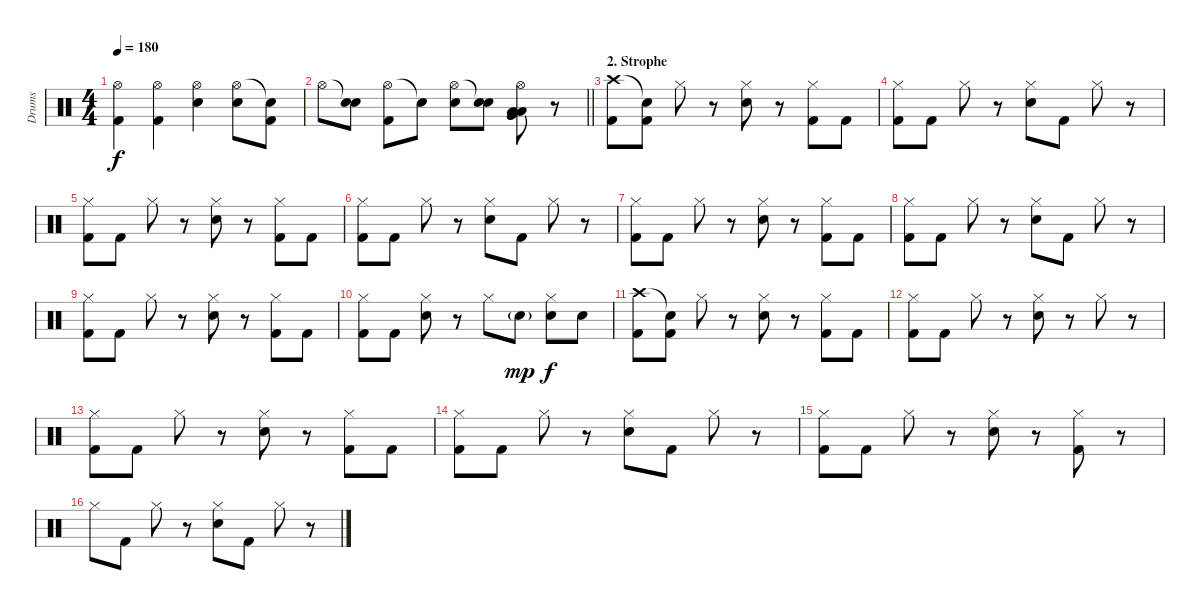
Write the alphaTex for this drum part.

\track ("Drums" "Drums") {instrument percussion}
\staff {score}
\articulation defaults
\ts (4 4)
\tempo 180
\clef neutral
\ks c
("Hi-Hat (open)" "Kick (hit) 2").4{dy f} ("Hi-Hat (open)" "Kick (hit) 2").4 ("Hi-Hat (open)" "Snare (hit) 2").4 ("Hi-Hat (open)" "Snare (hit) 2").8 ("Snare (hit)"{t} "Kick (hit) 2").8 |
\barLineRight lightlight "Hi-Hat (open)".8
("Snare (hit)"{t} "Snare (hit) 2").8 ("Hi-Hat (open)" "Kick (hit) 2").8 "Snare (hit)"{t}.8 ("Hi-Hat (open)" "Snare (hit) 2").8 ("Snare (hit)"{t} "Snare (hit) 2").8 ("Hi-Hat (open)" "Low Tom (hit)" "Very Low Tom (hit)" "Very Low Tom (hit)" "Low Floor Tom (hit)").8 r.8 |
\section ("" "2. Strophe")
("Crash high (hit)" "Kick (hit) 2").8 ("Snare (hit)"{t} "Kick (hit) 2").8 "Hi-Hat (closed)".8 r.8 ("Hi-Hat (closed)" "Snare (hit) 2").8 r.8 ("Hi-Hat (closed)" "Kick (hit) 2").8 "Kick (hit) 2".8 |
("Hi-Hat (closed)" "Kick (hit) 2").8 "Kick (hit) 2".8 "Hi-Hat (closed)".8 r.8 ("Hi-Hat (closed)" "Snare (hit) 2").8 "Kick (hit) 2".8 "Hi-Hat (closed)".8 r.8 |
("Hi-Hat (closed)" "Kick (hit) 2").8 "Kick (hit) 2".8 "Hi-Hat (closed)".8 r.8 ("Hi-Hat (closed)" "Snare (hit) 2").8 r.8 ("Hi-Hat (closed)" "Kick (hit) 2").8 "Kick (hit) 2".8 |
("Hi-Hat (closed)" "Kick (hit) 2").8 "Kick (hit) 2".8 "Hi-Hat (closed)".8 r.8 ("Hi-Hat (closed)" "Snare (hit) 2").8 "Kick (hit) 2".8 "Hi-Hat (closed)".8 r.8 |
("Hi-Hat (closed)" "Kick (hit) 2").8 "Kick (hit) 2".8 "Hi-Hat (closed)".8 r.8 ("Hi-Hat (closed)" "Snare (hit) 2").8 r.8 ("Hi-Hat (closed)" "Kick (hit) 2").8 "Kick (hit) 2".8 |
("Hi-Hat (closed)" "Kick (hit) 2").8 "Kick (hit) 2".8 "Hi-Hat (closed)".8 r.8 ("Hi-Hat (closed)" "Snare (hit) 2").8 "Kick (hit) 2".8 "Hi-Hat (closed)".8 r.8 |
("Hi-Hat (closed)" "Kick (hit) 2").8 "Kick (hit) 2".8 "Hi-Hat (closed)".8 r.8 ("Hi-Hat (closed)" "Snare (hit) 2").8 r.8 ("Hi-Hat (closed)" "Kick (hit) 2").8 "Kick (hit) 2".8 |
("Hi-Hat (closed)" "Kick (hit) 2").8 "Kick (hit) 2".8 ("Hi-Hat (closed)" "Snare (hit) 2").8 r.8 "Hi-Hat (closed)".8 "Snare (hit) 2"{g}.8{dy mp} ("Hi-Hat (closed)" "Snare (hit) 2").8{dy f} "Snare (hit) 2".8 |
("Crash high (hit)" "Kick (hit) 2").8 ("Snare (hit)"{t} "Kick (hit) 2").8 "Hi-Hat (closed)".8 r.8 ("Hi-Hat (closed)" "Snare (hit) 2").8 r.8 ("Hi-Hat (closed)" "Kick (hit) 2").8 "Kick (hit) 2".8 |
("Hi-Hat (closed)" "Kick (hit) 2").8 "Kick (hit) 2".8 "Hi-Hat (closed)".8 r.8 ("Hi-Hat (closed)" "Snare (hit) 2").8 r.8 "Hi-Hat (closed)".8 r.8 |
("Hi-Hat (closed)" "Kick (hit) 2").8 "Kick (hit) 2".8 "Hi-Hat (closed)".8 r.8 ("Hi-Hat (closed)" "Snare (hit) 2").8 r.8 ("Hi-Hat (closed)" "Kick (hit) 2").8 "Kick (hit) 2".8 |
("Hi-Hat (closed)" "Kick (hit) 2").8 "Kick (hit) 2".8 "Hi-Hat (closed)".8 r.8 ("Hi-Hat (closed)" "Snare (hit) 2").8 "Kick (hit) 2".8 "Hi-Hat (closed)".8 r.8 |
("Hi-Hat (closed)" "Kick (hit) 2").8 "Kick (hit) 2".8 "Hi-Hat (closed)".8 r.8 ("Hi-Hat (closed)" "Snare (hit) 2").8 r.8 ("Hi-Hat (closed)" "Kick (hit) 2").8 r.8 |
"Hi-Hat (closed)".8 "Kick (hit) 2".8 "Hi-Hat (closed)".8 r.8 ("Hi-Hat (closed)" "Snare (hit) 2").8 "Kick (hit) 2".8 "Hi-Hat (closed)".8 r.8
